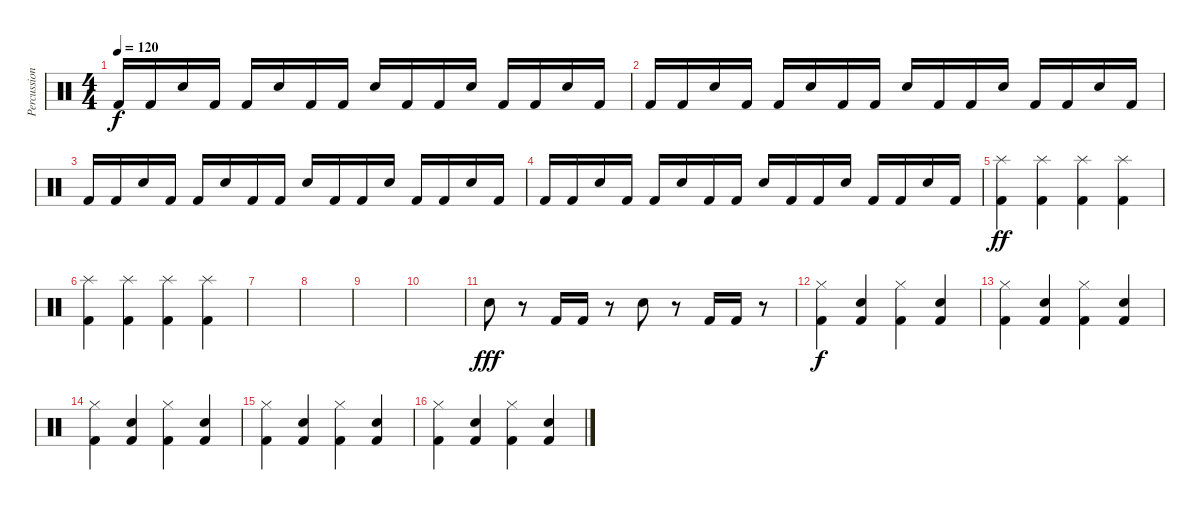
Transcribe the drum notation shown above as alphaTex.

\track ("Percussion" "Percussion") {instrument percussion}
\staff {score}
\articulation defaults
\ts (4 4)
\tempo 120
\clef neutral
\ks c "Kick (hit) 2".16{dy f} "Kick (hit) 2".16 "Snare (hit) 2".16 "Kick (hit) 2".16 "Kick (hit) 2".16 "Snare (hit) 2".16 "Kick (hit) 2".16 "Kick (hit) 2".16 "Snare (hit) 2".16 "Kick (hit) 2".16 "Kick (hit) 2".16 "Snare (hit) 2".16 "Kick (hit) 2".16 "Kick (hit) 2".16 "Snare (hit) 2".16 "Kick (hit) 2".16
|
"Kick (hit) 2".16 "Kick (hit) 2".16 "Snare (hit) 2".16 "Kick (hit) 2".16 "Kick (hit) 2".16 "Snare (hit) 2".16 "Kick (hit) 2".16 "Kick (hit) 2".16 "Snare (hit) 2".16 "Kick (hit) 2".16 "Kick (hit) 2".16 "Snare (hit) 2".16 "Kick (hit) 2".16 "Kick (hit) 2".16 "Snare (hit) 2".16 "Kick (hit) 2".16 |
"Kick (hit) 2".16 "Kick (hit) 2".16 "Snare (hit) 2".16 "Kick (hit) 2".16 "Kick (hit) 2".16 "Snare (hit) 2".16 "Kick (hit) 2".16 "Kick (hit) 2".16 "Snare (hit) 2".16 "Kick (hit) 2".16 "Kick (hit) 2".16 "Snare (hit) 2".16 "Kick (hit) 2".16 "Kick (hit) 2".16 "Snare (hit) 2".16 "Kick (hit) 2".16 |
"Kick (hit) 2".16 "Kick (hit) 2".16 "Snare (hit) 2".16 "Kick (hit) 2".16 "Kick (hit) 2".16 "Snare (hit) 2".16 "Kick (hit) 2".16 "Kick (hit) 2".16 "Snare (hit) 2".16 "Kick (hit) 2".16 "Kick (hit) 2".16 "Snare (hit) 2".16 "Kick (hit) 2".16 "Kick (hit) 2".16 "Snare (hit) 2".16 "Kick (hit) 2".16 |
("Splash (hit)" "Kick (hit) 2").4{dy ff} ("Splash (hit)" "Kick (hit) 2").4 ("Splash (hit)" "Kick (hit) 2").4 ("Splash (hit)" "Kick (hit) 2").4 |
("Splash (hit)" "Kick (hit) 2").4 ("Splash (hit)" "Kick (hit) 2").4 ("Splash (hit)" "Kick (hit) 2").4 ("Splash (hit)" "Kick (hit) 2").4 |
|
|
|
|
"Snare (hit) 2".8{dy fff} r.8 "Kick (hit) 2".16 "Kick (hit) 2".16 r.8 "Snare (hit) 2".8 r.8 "Kick (hit) 2".16 "Kick (hit) 2".16 r.8 |
("Hi-Hat (closed)" "Kick (hit) 2").4{dy f} ("Snare (hit) 2" "Kick (hit) 2").4 ("Hi-Hat (closed)" "Kick (hit) 2").4 ("Snare (hit) 2" "Kick (hit) 2").4 |
("Hi-Hat (closed)" "Kick (hit) 2").4 ("Snare (hit) 2" "Kick (hit) 2").4 ("Hi-Hat (closed)" "Kick (hit) 2").4 ("Snare (hit) 2" "Kick (hit) 2").4 |
("Hi-Hat (closed)" "Kick (hit) 2").4 ("Snare (hit) 2" "Kick (hit) 2").4 ("Hi-Hat (closed)" "Kick (hit) 2").4 ("Snare (hit) 2" "Kick (hit) 2").4 |
("Hi-Hat (closed)" "Kick (hit) 2").4 ("Snare (hit) 2" "Kick (hit) 2").4 ("Hi-Hat (closed)" "Kick (hit) 2").4 ("Snare (hit) 2" "Kick (hit) 2").4 |
("Hi-Hat (closed)" "Kick (hit) 2").4 ("Snare (hit) 2" "Kick (hit) 2").4 ("Hi-Hat (closed)" "Kick (hit) 2").4 ("Snare (hit) 2" "Kick (hit) 2").4
